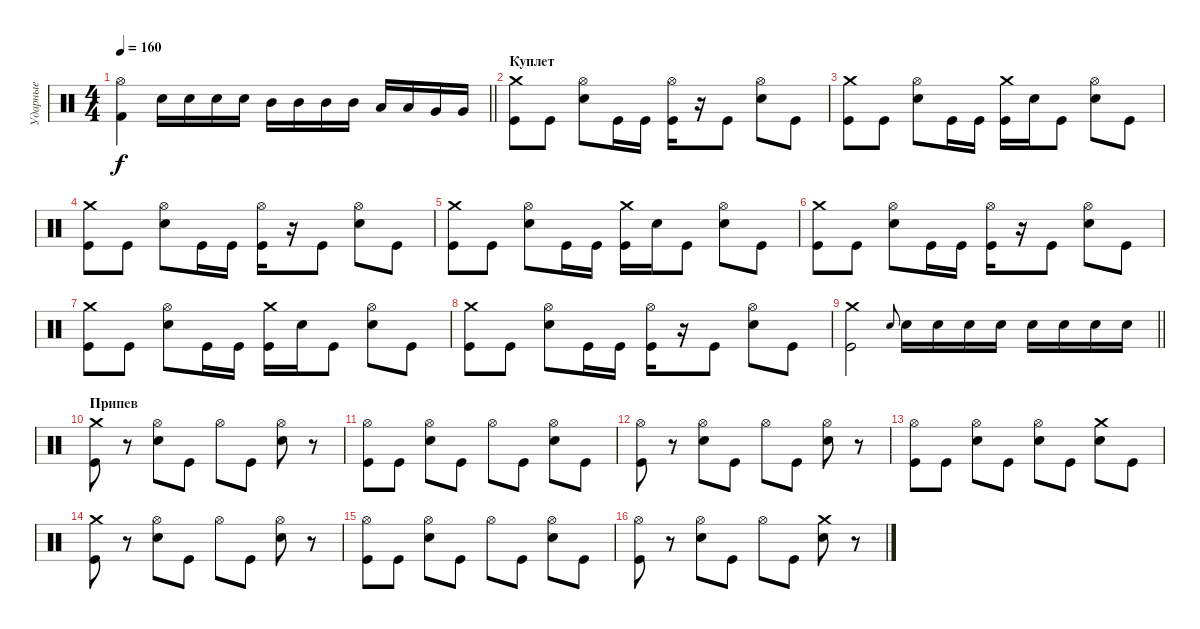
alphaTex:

\track ("Ударные" "Ударные") {instrument percussion}
\staff {score}
\articulation defaults
\ts (4 4)
\tempo 160
\clef neutral
\barLineRight lightlight
\ks c
("Kick (hit) 2" "Hi-Hat (open)").4{dy f} "Electric Snare (hit)".16 "Electric Snare (hit)".16 "Electric Snare (hit)".16 "Electric Snare (hit)".16 "Mid Tom (hit)".16 "Mid Tom (hit)".16 "Mid Tom (hit)".16 "Mid Tom (hit)".16 "Low Tom (hit)".16 "Low Tom (hit)".16 "Very Low Tom (hit)".16 "Very Low Tom (hit)".16 |
\section ("" "Куплет")
("Kick (hit)" "Crash medium (hit)").8 "Kick (hit)".8 ("Electric Snare (hit)" "Hi-Hat (open)").8 "Kick (hit)".16 "Kick (hit)".16 ("Kick (hit)" "Hi-Hat (open)").16 r.16 "Kick (hit)".8 ("Electric Snare (hit)" "Hi-Hat (open)").8 "Kick (hit)".8 |
("Kick (hit)" "Crash medium (hit)").8 "Kick (hit)".8 ("Electric Snare (hit)" "Hi-Hat (open)").8 "Kick (hit)".16 "Kick (hit)".16 ("Kick (hit)" "Crash medium (hit)").16 "Electric Snare (hit)".16 "Kick (hit)".8 ("Electric Snare (hit)" "Hi-Hat (open)").8 "Kick (hit)".8 |
("Kick (hit)" "Crash medium (hit)").8 "Kick (hit)".8 ("Electric Snare (hit)" "Hi-Hat (open)").8 "Kick (hit)".16 "Kick (hit)".16 ("Kick (hit)" "Hi-Hat (open)").16 r.16 "Kick (hit)".8 ("Electric Snare (hit)" "Hi-Hat (open)").8 "Kick (hit)".8 |
("Kick (hit)" "Crash medium (hit)").8 "Kick (hit)".8 ("Electric Snare (hit)" "Hi-Hat (open)").8 "Kick (hit)".16 "Kick (hit)".16 ("Kick (hit)" "Crash medium (hit)").16 "Electric Snare (hit)".16 "Kick (hit)".8 ("Electric Snare (hit)" "Hi-Hat (open)").8 "Kick (hit)".8 |
("Kick (hit)" "Crash medium (hit)").8 "Kick (hit)".8 ("Electric Snare (hit)" "Hi-Hat (open)").8 "Kick (hit)".16 "Kick (hit)".16 ("Kick (hit)" "Hi-Hat (open)").16 r.16 "Kick (hit)".8 ("Electric Snare (hit)" "Hi-Hat (open)").8 "Kick (hit)".8 |
("Kick (hit)" "Crash medium (hit)").8 "Kick (hit)".8 ("Electric Snare (hit)" "Hi-Hat (open)").8 "Kick (hit)".16 "Kick (hit)".16 ("Kick (hit)" "Crash medium (hit)").16 "Electric Snare (hit)".16 "Kick (hit)".8 ("Electric Snare (hit)" "Hi-Hat (open)").8 "Kick (hit)".8 |
("Kick (hit)" "Crash medium (hit)").8 "Kick (hit)".8 ("Electric Snare (hit)" "Hi-Hat (open)").8 "Kick (hit)".16 "Kick (hit)".16 ("Kick (hit)" "Hi-Hat (open)").16 r.16 "Kick (hit)".8 ("Electric Snare (hit)" "Hi-Hat (open)").8 "Kick (hit)".8 |
\barLineRight lightlight
("Kick (hit)" "Crash medium (hit)").2 "Electric Snare (hit)".8{gr onbeat} "Electric Snare (hit)".16 "Electric Snare (hit)".16 "Electric Snare (hit)".16 "Electric Snare (hit)".16 "Electric Snare (hit)".16 "Electric Snare (hit)".16 "Electric Snare (hit)".16 "Electric Snare (hit)".16 |
\section ("" "Припев")
("Kick (hit)" "Crash medium (hit)").8 r.8 ("Electric Snare (hit)" "Hi-Hat (open)").8 "Kick (hit)".8 "Hi-Hat (open)".8 "Kick (hit)".8 ("Electric Snare (hit)" "Hi-Hat (open)").8 r.8 |
("Kick (hit)" "Hi-Hat (open)").8 "Kick (hit)".8 ("Electric Snare (hit)" "Hi-Hat (open)").8 "Kick (hit)".8 "Hi-Hat (open)".8 "Kick (hit)".8 ("Electric Snare (hit)" "Hi-Hat (open)").8 "Kick (hit)".8 |
("Kick (hit)" "Hi-Hat (open)").8 r.8 ("Electric Snare (hit)" "Hi-Hat (open)").8 "Kick (hit)".8 "Hi-Hat (open)".8 "Kick (hit)".8 ("Electric Snare (hit)" "Hi-Hat (open)").8 r.8 |
("Kick (hit)" "Hi-Hat (open)").8 "Kick (hit)".8 ("Electric Snare (hit)" "Hi-Hat (open)").8 "Kick (hit)".8 ("Electric Snare (hit)" "Hi-Hat (open)").8 "Kick (hit)".8 ("Electric Snare (hit)" "Crash medium (hit)").8 "Kick (hit)".8 |
("Kick (hit)" "Crash medium (hit)").8 r.8 ("Electric Snare (hit)" "Hi-Hat (open)").8 "Kick (hit)".8 "Hi-Hat (open)".8 "Kick (hit)".8 ("Electric Snare (hit)" "Hi-Hat (open)").8 r.8 |
("Kick (hit)" "Hi-Hat (open)").8 "Kick (hit)".8 ("Electric Snare (hit)" "Hi-Hat (open)").8 "Kick (hit)".8 "Hi-Hat (open)".8 "Kick (hit)".8 ("Electric Snare (hit)" "Hi-Hat (open)").8 "Kick (hit)".8 |
("Kick (hit)" "Hi-Hat (open)").8 r.8 ("Electric Snare (hit)" "Hi-Hat (open)").8 "Kick (hit)".8 "Hi-Hat (open)".8 "Kick (hit)".8 ("Electric Snare (hit)" "Crash medium (hit)").8 r.8
